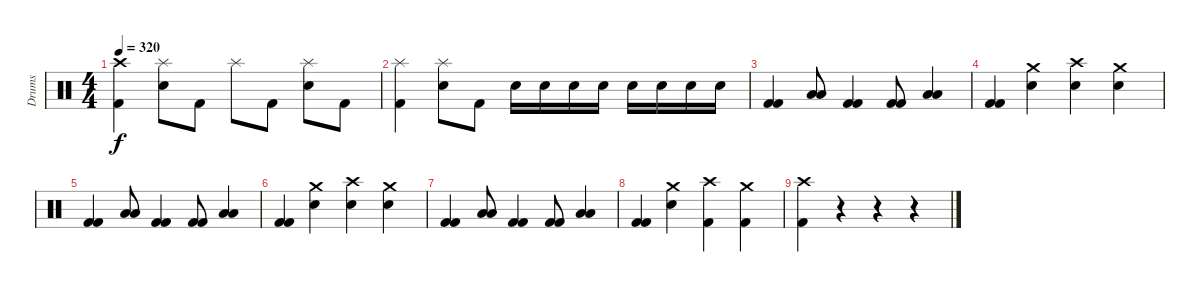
\track ("Drums" "Drums") {instrument percussion}
\staff {score}
\articulation defaults
\ts (4 4)
\tempo 320
\clef neutral
\ks c
("Crash high (hit)" "Kick (hit) 2").4{dy f} ("Splash (hit)" "Electric Snare (hit)").8 "Kick (hit) 2".8 "Splash (hit)".8 "Kick (hit) 2".8 ("Splash (hit)" "Electric Snare (hit)").8 "Kick (hit) 2".8 |
("Splash (hit)" "Kick (hit) 2").4 ("Splash (hit)" "Electric Snare (hit)").8 "Kick (hit) 2".8 "Electric Snare (hit)".16 "Electric Snare (hit)".16 "Electric Snare (hit)".16 "Electric Snare (hit)".16 "Electric Snare (hit)".16 "Electric Snare (hit)".16 "Electric Snare (hit)".16 "Electric Snare (hit)".16 |
("Kick (hit) 2" "Kick (hit) 2").4 ("Low Tom (hit)" "Low Tom (hit)").8 ("Kick (hit) 2" "Kick (hit) 2").4 ("Kick (hit) 2" "Kick (hit) 2").8 ("Low Tom (hit)" "Low Tom (hit)").4 |
("Kick (hit) 2" "Kick (hit) 2").4 ("Crash medium (hit)" "Electric Snare (hit)").4 ("Crash high (hit)" "Electric Snare (hit)").4 ("Crash medium (hit)" "Electric Snare (hit)").4 |
("Kick (hit) 2" "Kick (hit) 2").4 ("Low Tom (hit)" "Low Tom (hit)").8 ("Kick (hit) 2" "Kick (hit) 2").4 ("Kick (hit) 2" "Kick (hit) 2").8 ("Low Tom (hit)" "Low Tom (hit)").4 |
("Kick (hit) 2" "Kick (hit) 2").4 ("Crash medium (hit)" "Electric Snare (hit)").4 ("Crash high (hit)" "Electric Snare (hit)").4 ("Crash medium (hit)" "Electric Snare (hit)").4 |
("Kick (hit) 2" "Kick (hit) 2").4 ("Low Tom (hit)" "Low Tom (hit)").8 ("Kick (hit) 2" "Kick (hit) 2").4 ("Kick (hit) 2" "Kick (hit) 2").8 ("Low Tom (hit)" "Low Tom (hit)").4 |
("Kick (hit) 2" "Kick (hit) 2").4 ("Crash medium (hit)" "Electric Snare (hit)").4 ("Crash high (hit)" "Kick (hit) 2").4 ("Crash medium (hit)" "Kick (hit) 2").4 |
("Crash high (hit)" "Kick (hit) 2").4 r.4 r.4 r.4
